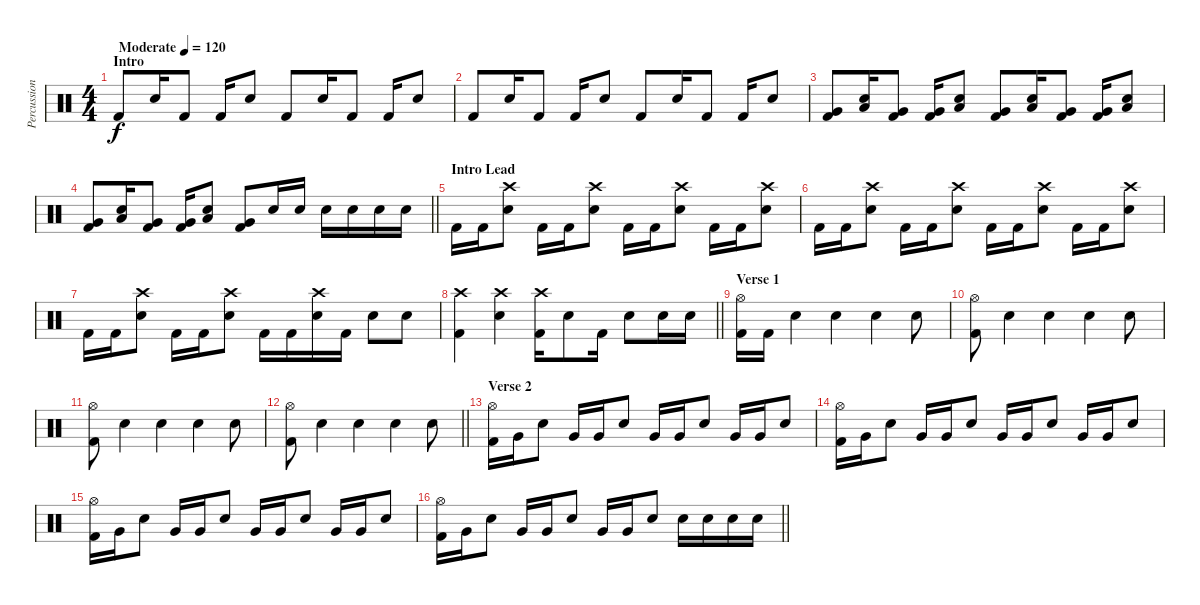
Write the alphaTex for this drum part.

\track ("Percussion" "Percussion") {instrument percussion}
\staff {score}
\articulation defaults
\ts (4 4)
\section ("" "Intro")
\tempo (120 "Moderate")
\clef neutral
\ks c "Kick (hit) 2".8{dy f volume 7} "Snare (hit) 2".16 "Kick (hit) 2".8 "Kick (hit) 2".16 "Snare (hit) 2".8 "Kick (hit) 2".8 "Snare (hit) 2".16 "Kick (hit) 2".8 "Kick (hit) 2".16 "Snare (hit) 2".8
|
"Kick (hit) 2".8 "Snare (hit) 2".16 "Kick (hit) 2".8 "Kick (hit) 2".16 "Snare (hit) 2".8 "Kick (hit) 2".8 "Snare (hit) 2".16 "Kick (hit) 2".8 "Kick (hit) 2".16 "Snare (hit) 2".8 |
("Very Low Tom (hit)" "Kick (hit) 2").8 ("Low Tom (hit)" "Snare (hit) 2").16 ("Very Low Tom (hit)" "Kick (hit) 2").8 ("Very Low Tom (hit)" "Kick (hit) 2").16 ("Low Tom (hit)" "Snare (hit) 2").8 ("Very Low Tom (hit)" "Kick (hit) 2").8 ("Low Tom (hit)" "Snare (hit) 2").16 ("Very Low Tom (hit)" "Kick (hit) 2").8 ("Very Low Tom (hit)" "Kick (hit) 2").16 ("Low Tom (hit)" "Snare (hit) 2").8 |
\barLineRight lightlight
("Very Low Tom (hit)" "Kick (hit) 2").8 ("Low Tom (hit)" "Snare (hit) 2").16 ("Very Low Tom (hit)" "Kick (hit) 2").8 ("Very Low Tom (hit)" "Kick (hit) 2").16 ("Low Tom (hit)" "Snare (hit) 2").8 ("Very Low Tom (hit)" "Kick (hit) 2").8 "Snare (hit) 2".16 "Snare (hit) 2".16 "Snare (hit) 2".16{volume 16} "Snare (hit) 2".16 "Snare (hit) 2".16 "Snare (hit) 2".16 |
\section ("" "Intro Lead")
"Kick (hit) 2".16 "Kick (hit) 2".16 ("Crash high (hit)" "Snare (hit) 2").8 "Kick (hit) 2".16 "Kick (hit) 2".16 ("Crash high (hit)" "Snare (hit) 2").8 "Kick (hit) 2".16 "Kick (hit) 2".16 ("Crash high (hit)" "Snare (hit) 2").8 "Kick (hit) 2".16 "Kick (hit) 2".16 ("Crash high (hit)" "Snare (hit) 2").8 |
"Kick (hit) 2".16 "Kick (hit) 2".16 ("Crash high (hit)" "Snare (hit) 2").8 "Kick (hit) 2".16 "Kick (hit) 2".16 ("Crash high (hit)" "Snare (hit) 2").8 "Kick (hit) 2".16 "Kick (hit) 2".16 ("Crash high (hit)" "Snare (hit) 2").8 "Kick (hit) 2".16 "Kick (hit) 2".16 ("Crash high (hit)" "Snare (hit) 2").8 |
"Kick (hit) 2".16 "Kick (hit) 2".16 ("Crash high (hit)" "Snare (hit) 2").8 "Kick (hit) 2".16 "Kick (hit) 2".16 ("Crash high (hit)" "Snare (hit) 2").8 "Kick (hit) 2".16 "Kick (hit) 2".16 ("Crash high (hit)" "Snare (hit) 2").16 "Kick (hit) 2".16 "Snare (hit) 2".8 "Snare (hit) 2".8 |
\barLineRight lightlight
("Crash high (hit)" "Kick (hit) 2").4 ("Crash high (hit)" "Snare (hit) 2").4 ("Crash high (hit)" "Kick (hit) 2").16 "Snare (hit) 2".8 "Kick (hit) 2".16 "Snare (hit) 2".8 "Snare (hit) 2".16 "Snare (hit) 2".16 |
\section ("" "Verse 1")
("Hi-Hat (open)" "Kick (hit) 2").16 "Kick (hit) 2".16 "Snare (hit) 2".4 "Snare (hit) 2".4 "Snare (hit) 2".4 "Snare (hit) 2".8 |
("Hi-Hat (open)" "Kick (hit) 2").8 "Snare (hit) 2".4 "Snare (hit) 2".4 "Snare (hit) 2".4 "Snare (hit) 2".8 |
("Hi-Hat (open)" "Kick (hit) 2").8 "Snare (hit) 2".4 "Snare (hit) 2".4 "Snare (hit) 2".4 "Snare (hit) 2".8 |
\barLineRight lightlight
("Hi-Hat (open)" "Kick (hit) 2").8 "Snare (hit) 2".4 "Snare (hit) 2".4 "Snare (hit) 2".4 "Snare (hit) 2".8 |
\section ("" "Verse 2")
("Hi-Hat (open)" "Kick (hit) 2").16 "Very Low Tom (hit)".16 "Snare (hit) 2".8 "Very Low Tom (hit)".16 "Very Low Tom (hit)".16 "Snare (hit) 2".8 "Very Low Tom (hit)".16 "Very Low Tom (hit)".16 "Snare (hit) 2".8 "Very Low Tom (hit)".16 "Very Low Tom (hit)".16 "Snare (hit) 2".8 |
("Hi-Hat (open)" "Kick (hit) 2").16 "Very Low Tom (hit)".16 "Snare (hit) 2".8 "Very Low Tom (hit)".16 "Very Low Tom (hit)".16 "Snare (hit) 2".8 "Very Low Tom (hit)".16 "Very Low Tom (hit)".16 "Snare (hit) 2".8 "Very Low Tom (hit)".16 "Very Low Tom (hit)".16 "Snare (hit) 2".8 |
("Hi-Hat (open)" "Kick (hit) 2").16 "Very Low Tom (hit)".16 "Snare (hit) 2".8 "Very Low Tom (hit)".16 "Very Low Tom (hit)".16 "Snare (hit) 2".8 "Very Low Tom (hit)".16 "Very Low Tom (hit)".16 "Snare (hit) 2".8 "Very Low Tom (hit)".16 "Very Low Tom (hit)".16 "Snare (hit) 2".8 |
\barLineRight lightlight
("Hi-Hat (open)" "Kick (hit) 2").16 "Very Low Tom (hit)".16 "Snare (hit) 2".8 "Very Low Tom (hit)".16 "Very Low Tom (hit)".16 "Snare (hit) 2".8 "Very Low Tom (hit)".16 "Very Low Tom (hit)".16 "Snare (hit) 2".8 "Snare (hit) 2".16 "Snare (hit) 2".16 "Snare (hit) 2".16 "Snare (hit) 2".16
